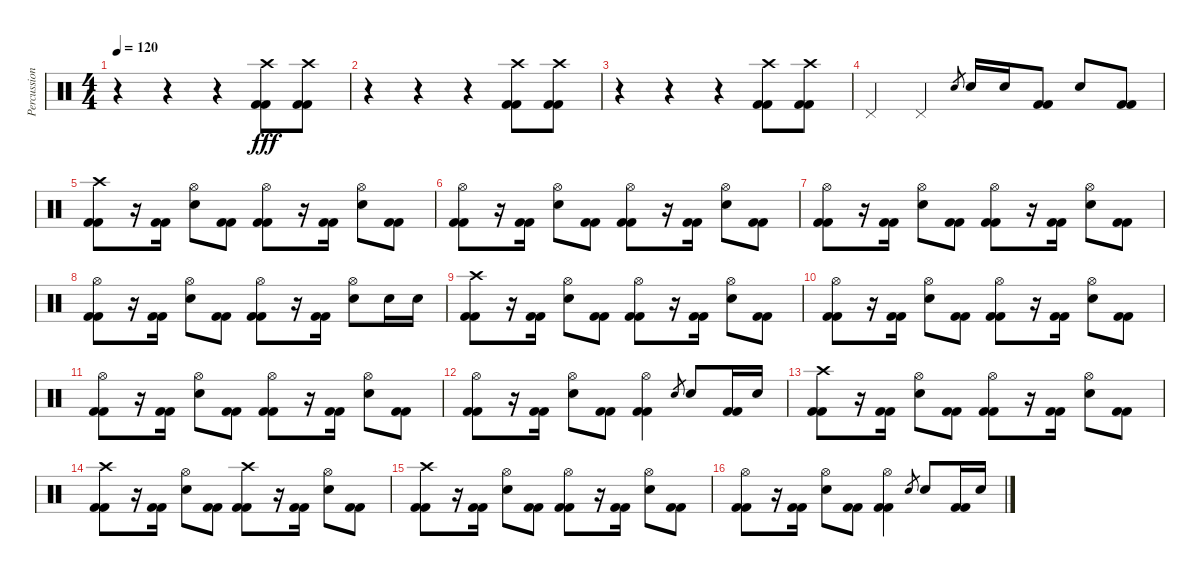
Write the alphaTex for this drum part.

\track ("Percussioni" "Percussion") {instrument percussion}
\staff {score}
\articulation defaults
\ts (4 4)
\tempo 120
\clef neutral
\ks c
r.4{dy fff} r.4 r.4 ("Crash high (hit)" "Kick (hit) 2" "Kick (hit) 2").8 ("Crash high (hit)" "Kick (hit) 2" "Kick (hit) 2").8 |
r.4 r.4 r.4 ("Crash high (hit)" "Kick (hit) 2" "Kick (hit) 2").8 ("Crash high (hit)" "Kick (hit) 2" "Kick (hit) 2").8 |
r.4 r.4 r.4 ("Crash high (hit)" "Kick (hit) 2" "Kick (hit) 2").8 ("Crash high (hit)" "Kick (hit) 2" "Kick (hit) 2").8 |
"Pedal Hi-Hat (hit)".4 "Pedal Hi-Hat (hit)".4 "Snare (hit) 2".8{gr} "Snare (hit) 2".16 "Snare (hit) 2".16 ("Kick (hit) 2" "Kick (hit) 2").8 "Snare (hit) 2".8 ("Kick (hit) 2" "Kick (hit) 2").8 |
("Crash high (hit)" "Kick (hit) 2" "Kick (hit) 2").8 r.16 ("Kick (hit) 2" "Kick (hit) 2").16 ("Hi-Hat (open)" "Snare (hit) 2").8 ("Kick (hit) 2" "Kick (hit) 2").8 ("Hi-Hat (open)" "Kick (hit) 2" "Kick (hit) 2").8 r.16 ("Kick (hit) 2" "Kick (hit) 2").16 ("Hi-Hat (open)" "Snare (hit) 2").8 ("Kick (hit) 2" "Kick (hit) 2").8 |
("Hi-Hat (open)" "Kick (hit) 2" "Kick (hit) 2").8 r.16 ("Kick (hit) 2" "Kick (hit) 2").16 ("Hi-Hat (open)" "Snare (hit) 2").8 ("Kick (hit) 2" "Kick (hit) 2").8 ("Hi-Hat (open)" "Kick (hit) 2" "Kick (hit) 2").8 r.16 ("Kick (hit) 2" "Kick (hit) 2").16 ("Hi-Hat (open)" "Snare (hit) 2").8 ("Kick (hit) 2" "Kick (hit) 2").8 |
("Hi-Hat (open)" "Kick (hit) 2" "Kick (hit) 2").8 r.16 ("Kick (hit) 2" "Kick (hit) 2").16 ("Hi-Hat (open)" "Snare (hit) 2").8 ("Kick (hit) 2" "Kick (hit) 2").8 ("Hi-Hat (open)" "Kick (hit) 2" "Kick (hit) 2").8 r.16 ("Kick (hit) 2" "Kick (hit) 2").16 ("Hi-Hat (open)" "Snare (hit) 2").8 ("Kick (hit) 2" "Kick (hit) 2").8 |
("Hi-Hat (open)" "Kick (hit) 2" "Kick (hit) 2").8 r.16 ("Kick (hit) 2" "Kick (hit) 2").16 ("Hi-Hat (open)" "Snare (hit) 2").8 ("Kick (hit) 2" "Kick (hit) 2").8 ("Hi-Hat (open)" "Kick (hit) 2" "Kick (hit) 2").8 r.16 ("Kick (hit) 2" "Kick (hit) 2").16 ("Hi-Hat (open)" "Snare (hit) 2").8 "Snare (hit) 2".16 "Snare (hit) 2".16 |
("Crash high (hit)" "Kick (hit) 2" "Kick (hit) 2").8 r.16 ("Kick (hit) 2" "Kick (hit) 2").16 ("Hi-Hat (open)" "Snare (hit) 2").8 ("Kick (hit) 2" "Kick (hit) 2").8 ("Hi-Hat (open)" "Kick (hit) 2" "Kick (hit) 2").8 r.16 ("Kick (hit) 2" "Kick (hit) 2").16 ("Hi-Hat (open)" "Snare (hit) 2").8 ("Kick (hit) 2" "Kick (hit) 2").8 |
("Hi-Hat (open)" "Kick (hit) 2" "Kick (hit) 2").8 r.16 ("Kick (hit) 2" "Kick (hit) 2").16 ("Hi-Hat (open)" "Snare (hit) 2").8 ("Kick (hit) 2" "Kick (hit) 2").8 ("Hi-Hat (open)" "Kick (hit) 2" "Kick (hit) 2").8 r.16 ("Kick (hit) 2" "Kick (hit) 2").16 ("Hi-Hat (open)" "Snare (hit) 2").8 ("Kick (hit) 2" "Kick (hit) 2").8 |
("Hi-Hat (open)" "Kick (hit) 2" "Kick (hit) 2").8 r.16 ("Kick (hit) 2" "Kick (hit) 2").16 ("Hi-Hat (open)" "Snare (hit) 2").8 ("Kick (hit) 2" "Kick (hit) 2").8 ("Hi-Hat (open)" "Kick (hit) 2" "Kick (hit) 2").8 r.16 ("Kick (hit) 2" "Kick (hit) 2").16 ("Hi-Hat (open)" "Snare (hit) 2").8 ("Kick (hit) 2" "Kick (hit) 2").8 |
("Hi-Hat (open)" "Kick (hit) 2" "Kick (hit) 2").8 r.16 ("Kick (hit) 2" "Kick (hit) 2").16 ("Hi-Hat (open)" "Snare (hit) 2").8 ("Kick (hit) 2" "Kick (hit) 2").8 ("Hi-Hat (open)" "Kick (hit) 2" "Kick (hit) 2").4 "Snare (hit) 2".8{gr} "Snare (hit) 2".8 ("Kick (hit) 2" "Kick (hit) 2").16 "Snare (hit) 2".16 |
("Crash high (hit)" "Kick (hit) 2" "Kick (hit) 2").8 r.16 ("Kick (hit) 2" "Kick (hit) 2").16 ("Hi-Hat (open)" "Snare (hit) 2").8 ("Kick (hit) 2" "Kick (hit) 2").8 ("Hi-Hat (open)" "Kick (hit) 2" "Kick (hit) 2").8 r.16 ("Kick (hit) 2" "Kick (hit) 2").16 ("Hi-Hat (open)" "Snare (hit) 2").8 ("Kick (hit) 2" "Kick (hit) 2").8 |
("Crash high (hit)" "Kick (hit) 2" "Kick (hit) 2").8 r.16 ("Kick (hit) 2" "Kick (hit) 2").16 ("Hi-Hat (open)" "Snare (hit) 2").8 ("Kick (hit) 2" "Kick (hit) 2").8 ("Crash high (hit)" "Kick (hit) 2" "Kick (hit) 2").8 r.16 ("Kick (hit) 2" "Kick (hit) 2").16 ("Hi-Hat (open)" "Snare (hit) 2").8 ("Kick (hit) 2" "Kick (hit) 2").8 |
("Crash high (hit)" "Kick (hit) 2" "Kick (hit) 2").8 r.16 ("Kick (hit) 2" "Kick (hit) 2").16 ("Hi-Hat (open)" "Snare (hit) 2").8 ("Kick (hit) 2" "Kick (hit) 2").8 ("Hi-Hat (open)" "Kick (hit) 2" "Kick (hit) 2").8 r.16 ("Kick (hit) 2" "Kick (hit) 2").16 ("Hi-Hat (open)" "Snare (hit) 2").8 ("Kick (hit) 2" "Kick (hit) 2").8 |
("Hi-Hat (open)" "Kick (hit) 2" "Kick (hit) 2").8 r.16 ("Kick (hit) 2" "Kick (hit) 2").16 ("Hi-Hat (open)" "Snare (hit) 2").8 ("Kick (hit) 2" "Kick (hit) 2").8 ("Hi-Hat (open)" "Kick (hit) 2" "Kick (hit) 2").4 "Snare (hit) 2".8{gr} "Snare (hit) 2".8 ("Kick (hit) 2" "Kick (hit) 2").16 "Snare (hit) 2".16
